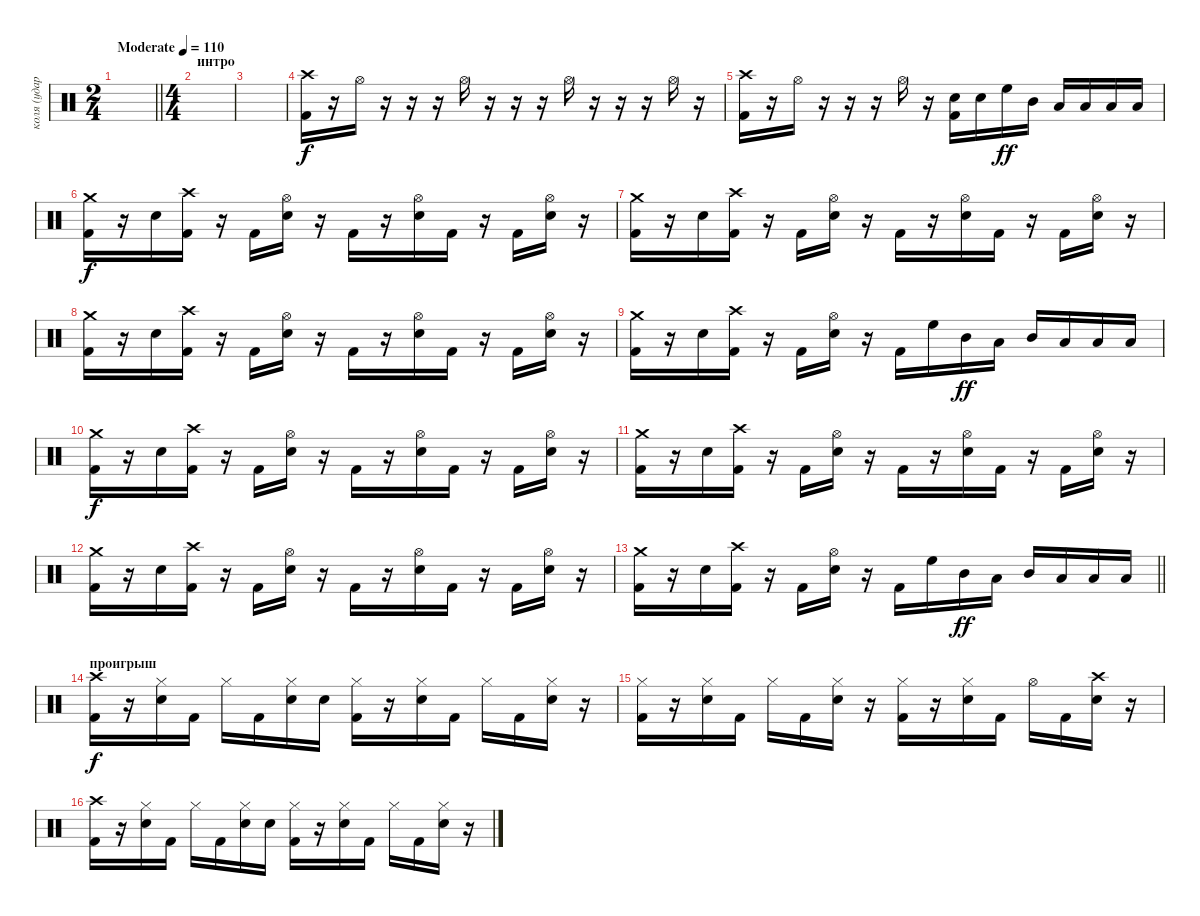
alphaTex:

\track ("коля (ударные)" "коля (удар") {instrument percussion}
\staff {score}
\articulation defaults
\ts (2 4)
\tempo (110 "Moderate")
\clef neutral
\barLineRight lightlight
\ks c
|
\ts (4 4)
\section ("" "интро")
|
|
("Kick (hit) 2" "Crash high (hit)").16 r.16 "Hi-Hat (open)".16 r.16 r.16 r.16 "Hi-Hat (open)".16 r.16 r.16 r.16 "Hi-Hat (open)".16 r.16 r.16 r.16 "Hi-Hat (open)".16 r.16 |
("Kick (hit) 2" "Crash high (hit)").16 r.16 "Hi-Hat (open)".16 r.16 r.16 r.16 "Hi-Hat (open)".16 r.16 ("Kick (hit) 2" "Hand Clap (hit)").16 "Electric Snare (hit)".16 "High Floor Tom (hit)".16{dy ff} "Mid Tom (hit)".16 "Low Tom (hit)".16 "Low Floor Tom (hit)".16 "Low Tom (hit)".16 "Low Floor Tom (hit)".16 |
("Kick (hit) 2" "Crash medium (hit)").16{dy f} r.16 "Snare (hit) 2".16 ("Kick (hit) 2" "Crash high (hit)").16 r.16 "Kick (hit) 2".16 ("Snare (hit) 2" "Hi-Hat (open)").16 r.16 "Kick (hit) 2".16 r.16 ("Snare (hit) 2" "Hi-Hat (open)").16 "Kick (hit) 2".16 r.16 "Kick (hit) 2".16 ("Snare (hit) 2" "Hi-Hat (open)").16 r.16 |
("Kick (hit) 2" "Crash medium (hit)").16 r.16 "Snare (hit) 2".16 ("Kick (hit) 2" "Crash high (hit)").16 r.16 "Kick (hit) 2".16 ("Snare (hit) 2" "Hi-Hat (open)").16 r.16 "Kick (hit) 2".16 r.16 ("Snare (hit) 2" "Hi-Hat (open)").16 "Kick (hit) 2".16 r.16 "Kick (hit) 2".16 ("Snare (hit) 2" "Hi-Hat (open)").16 r.16 |
("Kick (hit) 2" "Crash medium (hit)").16 r.16 "Snare (hit) 2".16 ("Kick (hit) 2" "Crash high (hit)").16 r.16 "Kick (hit) 2".16 ("Snare (hit) 2" "Hi-Hat (open)").16 r.16 "Kick (hit) 2".16 r.16 ("Snare (hit) 2" "Hi-Hat (open)").16 "Kick (hit) 2".16 r.16 "Kick (hit) 2".16 ("Snare (hit) 2" "Hi-Hat (open)").16 r.16 |
("Kick (hit) 2" "Crash medium (hit)").16 r.16 "Snare (hit) 2".16 ("Kick (hit) 2" "Crash high (hit)").16 r.16 "Kick (hit) 2".16 ("Snare (hit) 2" "Hi-Hat (open)").16 r.16 "Kick (hit) 2".16 "High Floor Tom (hit)".16 "Mid Tom (hit)".16{dy ff} "Low Tom (hit)".16 "Mid Tom (hit)".16 "Low Floor Tom (hit)".16 "Low Tom (hit)".16 "Low Floor Tom (hit)".16 |
("Kick (hit) 2" "Crash medium (hit)").16{dy f} r.16 "Snare (hit) 2".16 ("Kick (hit) 2" "Crash high (hit)").16 r.16 "Kick (hit) 2".16 ("Snare (hit) 2" "Hi-Hat (open)").16 r.16 "Kick (hit) 2".16 r.16 ("Snare (hit) 2" "Hi-Hat (open)").16 "Kick (hit) 2".16 r.16 "Kick (hit) 2".16 ("Snare (hit) 2" "Hi-Hat (open)").16 r.16 |
("Kick (hit) 2" "Crash medium (hit)").16 r.16 "Snare (hit) 2".16 ("Kick (hit) 2" "Crash high (hit)").16 r.16 "Kick (hit) 2".16 ("Snare (hit) 2" "Hi-Hat (open)").16 r.16 "Kick (hit) 2".16 r.16 ("Snare (hit) 2" "Hi-Hat (open)").16 "Kick (hit) 2".16 r.16 "Kick (hit) 2".16 ("Snare (hit) 2" "Hi-Hat (open)").16 r.16 |
("Kick (hit) 2" "Crash medium (hit)").16 r.16 "Snare (hit) 2".16 ("Kick (hit) 2" "Crash high (hit)").16 r.16 "Kick (hit) 2".16 ("Snare (hit) 2" "Hi-Hat (open)").16 r.16 "Kick (hit) 2".16 r.16 ("Snare (hit) 2" "Hi-Hat (open)").16 "Kick (hit) 2".16 r.16 "Kick (hit) 2".16 ("Snare (hit) 2" "Hi-Hat (open)").16 r.16 |
\barLineRight lightlight
("Kick (hit) 2" "Crash medium (hit)").16 r.16 "Snare (hit) 2".16 ("Kick (hit) 2" "Crash high (hit)").16 r.16 "Kick (hit) 2".16 ("Snare (hit) 2" "Hi-Hat (open)").16 r.16 "Kick (hit) 2".16 "High Floor Tom (hit)".16 "Mid Tom (hit)".16{dy ff} "Low Tom (hit)".16 "Mid Tom (hit)".16 "Low Floor Tom (hit)".16 "Low Tom (hit)".16 "Low Floor Tom (hit)".16 |
\section ("" "проигрыш")
("Kick (hit) 2" "Crash high (hit)").16{dy f} r.16 ("Snare (hit) 2" "Hi-Hat (closed)").16 "Kick (hit) 2".16 "Hi-Hat (closed)".16 "Kick (hit) 2".16 ("Snare (hit) 2" "Hi-Hat (closed)").16 "Snare (hit) 2".16 ("Kick (hit) 2" "Hi-Hat (closed)").16 r.16 ("Snare (hit) 2" "Hi-Hat (closed)").16 "Kick (hit) 2".16 "Hi-Hat (closed)".16 "Kick (hit) 2".16 ("Snare (hit) 2" "Hi-Hat (closed)").16 r.16 |
("Kick (hit) 2" "Hi-Hat (closed)").16 r.16 ("Snare (hit) 2" "Hi-Hat (closed)").16 "Kick (hit) 2".16 "Hi-Hat (closed)".16 "Kick (hit) 2".16 ("Snare (hit) 2" "Hi-Hat (closed)").16 r.16 ("Kick (hit) 2" "Hi-Hat (closed)").16 r.16 ("Snare (hit) 2" "Hi-Hat (closed)").16 "Kick (hit) 2".16 "Hi-Hat (open)".16 "Kick (hit) 2".16 ("Snare (hit) 2" "Crash high (hit)").16 r.16 |
("Kick (hit) 2" "Crash high (hit)").16 r.16 ("Snare (hit) 2" "Hi-Hat (closed)").16 "Kick (hit) 2".16 "Hi-Hat (closed)".16 "Kick (hit) 2".16 ("Snare (hit) 2" "Hi-Hat (closed)").16 "Snare (hit) 2".16 ("Kick (hit) 2" "Hi-Hat (closed)").16 r.16 ("Snare (hit) 2" "Hi-Hat (closed)").16 "Kick (hit) 2".16 "Hi-Hat (closed)".16 "Kick (hit) 2".16 ("Snare (hit) 2" "Hi-Hat (closed)").16 r.16
